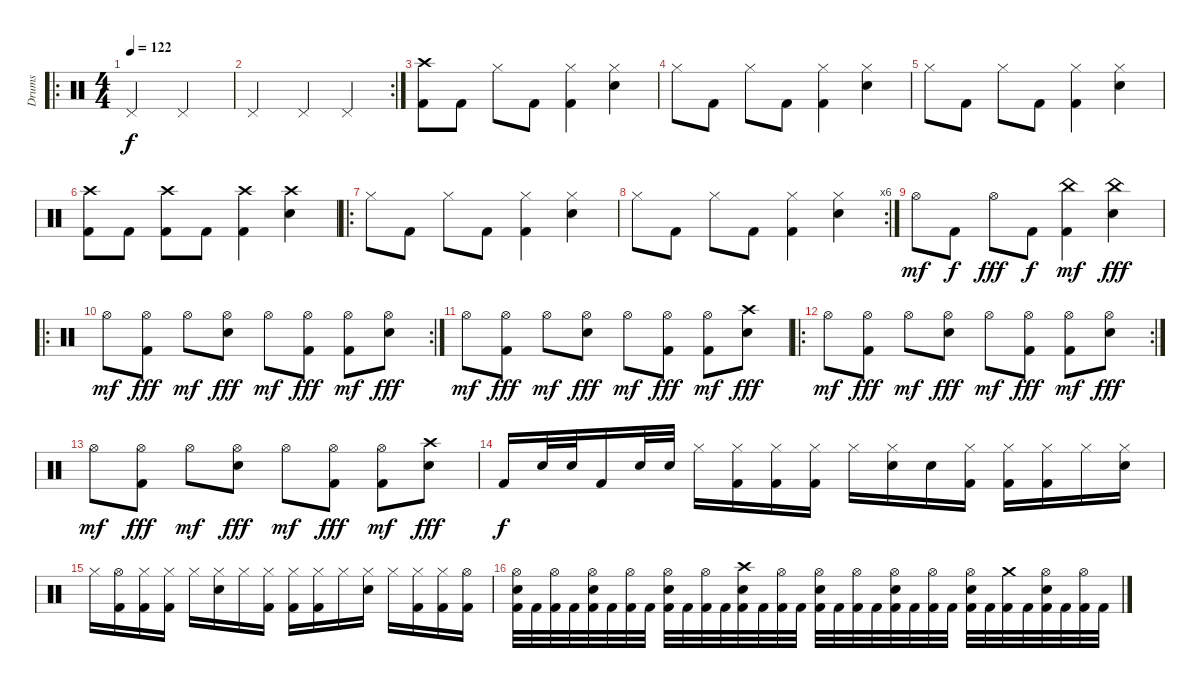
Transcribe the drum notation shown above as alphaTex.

\track ("Drums" "Drums") {instrument percussion}
\staff {score}
\articulation defaults
\ro
\ts (4 4)
\tempo 122
\clef neutral
\ks c "Pedal Hi-Hat (hit)".2{dy f} "Pedal Hi-Hat (hit)".2
|
\rc 2 "Pedal Hi-Hat (hit)".2 "Pedal Hi-Hat (hit)".4 "Pedal Hi-Hat (hit)".4
|
("Crash high (hit)" "Kick (hit) 2").8 "Kick (hit) 2".8 "Hi-Hat (closed)".8 "Kick (hit) 2".8 ("Hi-Hat (closed)" "Kick (hit) 2").4 ("Hi-Hat (closed)" "Snare (hit) 2").4 |
"Hi-Hat (closed)".8 "Kick (hit) 2".8 "Hi-Hat (closed)".8 "Kick (hit) 2".8 ("Hi-Hat (closed)" "Kick (hit) 2").4 ("Hi-Hat (closed)" "Snare (hit) 2").4 |
"Hi-Hat (closed)".8 "Kick (hit) 2".8 "Hi-Hat (closed)".8 "Kick (hit) 2".8 ("Hi-Hat (closed)" "Kick (hit) 2").4 ("Hi-Hat (closed)" "Snare (hit) 2").4 |
("Crash high (hit)" "Kick (hit) 2").8 "Kick (hit) 2".8 ("Crash high (hit)" "Kick (hit) 2").8 "Kick (hit) 2".8 ("Crash high (hit)" "Kick (hit) 2").4 ("Crash high (hit)" "Snare (hit) 2").4 |
\ro "Hi-Hat (closed)".8 "Kick (hit) 2".8 "Hi-Hat (closed)".8 "Kick (hit) 2".8
("Hi-Hat (closed)" "Kick (hit) 2").4 ("Hi-Hat (closed)" "Snare (hit) 2").4 |
\rc 6 "Hi-Hat (closed)".8 "Kick (hit) 2".8 "Hi-Hat (closed)".8 "Kick (hit) 2".8
("Hi-Hat (closed)" "Kick (hit) 2").4 ("Hi-Hat (closed)" "Snare (hit) 2").4 |
"Hi-Hat (open)".8{dy mf} "Kick (hit) 2".8{dy f} "Hi-Hat (open)".8{dy fff} "Kick (hit) 2".8{dy f} ("China (hit)" "Kick (hit) 2").4{dy mf} ("China (hit)" "Snare (hit) 2").4{dy fff} |
\ro
\rc 2 "Hi-Hat (open)".8{dy mf}
("Hi-Hat (open)" "Kick (hit) 2").8{dy fff} "Hi-Hat (open)".8{dy mf} ("Hi-Hat (open)" "Snare (hit) 2").8{dy fff} "Hi-Hat (open)".8{dy mf} ("Hi-Hat (open)" "Kick (hit) 2").8{dy fff} ("Hi-Hat (open)" "Kick (hit) 2").8{dy mf} ("Hi-Hat (open)" "Snare (hit) 2").8{dy fff} |
"Hi-Hat (open)".8{dy mf} ("Hi-Hat (open)" "Kick (hit) 2").8{dy fff} "Hi-Hat (open)".8{dy mf} ("Hi-Hat (open)" "Snare (hit) 2").8{dy fff} "Hi-Hat (open)".8{dy mf} ("Hi-Hat (open)" "Kick (hit) 2").8{dy fff} ("Hi-Hat (open)" "Kick (hit) 2").8{dy mf} ("Crash high (hit)" "Snare (hit) 2").8{dy fff} |
\ro
\rc 2 "Hi-Hat (open)".8{dy mf}
("Hi-Hat (open)" "Kick (hit) 2").8{dy fff} "Hi-Hat (open)".8{dy mf} ("Hi-Hat (open)" "Snare (hit) 2").8{dy fff} "Hi-Hat (open)".8{dy mf} ("Hi-Hat (open)" "Kick (hit) 2").8{dy fff} ("Hi-Hat (open)" "Kick (hit) 2").8{dy mf} ("Hi-Hat (open)" "Snare (hit) 2").8{dy fff} |
"Hi-Hat (open)".8{dy mf} ("Hi-Hat (open)" "Kick (hit) 2").8{dy fff} "Hi-Hat (open)".8{dy mf} ("Hi-Hat (open)" "Snare (hit) 2").8{dy fff} "Hi-Hat (open)".8{dy mf} ("Hi-Hat (open)" "Kick (hit) 2").8{dy fff} ("Hi-Hat (open)" "Kick (hit) 2").8{dy mf} ("Crash high (hit)" "Snare (hit) 2").8{dy fff} |
"Kick (hit) 2".16{dy f} "Snare (hit) 2".32 "Snare (hit) 2".32 "Kick (hit) 2".16 "Snare (hit) 2".32 "Snare (hit) 2".32 "Hi-Hat (closed)".16 ("Hi-Hat (closed)" "Kick (hit) 2").16 ("Hi-Hat (closed)" "Kick (hit) 2").16 ("Hi-Hat (closed)" "Kick (hit) 2").16 "Hi-Hat (closed)".16 ("Hi-Hat (closed)" "Snare (hit) 2").16 "Snare (hit)".16 ("Hi-Hat (closed)" "Kick (hit) 2").16 ("Hi-Hat (closed)" "Kick (hit) 2").16 ("Hi-Hat (closed)" "Kick (hit) 2").16 "Hi-Hat (closed)".16 ("Hi-Hat (closed)" "Snare (hit) 2").16 |
"Hi-Hat (closed)".16 ("Hi-Hat (open)" "Kick (hit) 2").16 ("Hi-Hat (closed)" "Kick (hit) 2").16 ("Hi-Hat (closed)" "Kick (hit) 2").16 "Hi-Hat (closed)".16 ("Hi-Hat (closed)" "Snare (hit) 2").16 "Hi-Hat (closed)".16 ("Hi-Hat (closed)" "Kick (hit) 2").16 ("Hi-Hat (closed)" "Kick (hit) 2").16 ("Hi-Hat (closed)" "Kick (hit) 2").16 "Hi-Hat (closed)".16 ("Hi-Hat (closed)" "Snare (hit) 2").16 "Hi-Hat (closed)".16 ("Hi-Hat (closed)" "Kick (hit) 2").16 ("Hi-Hat (closed)" "Kick (hit) 2").16 ("Hi-Hat (open)" "Kick (hit) 2").16 |
("Hi-Hat (open)" "Kick (hit) 2" "Snare (hit) 2").32 "Kick (hit) 2".32 ("Hi-Hat (open)" "Kick (hit) 2").32 "Kick (hit) 2".32 ("Hi-Hat (open)" "Kick (hit) 2" "Snare (hit) 2").32 "Kick (hit) 2".32 ("Hi-Hat (open)" "Kick (hit) 2").32 "Kick (hit) 2".32 ("Hi-Hat (open)" "Kick (hit) 2" "Snare (hit) 2").32 "Kick (hit) 2".32 ("Hi-Hat (open)" "Kick (hit) 2").32 "Kick (hit) 2".32 ("Crash high (hit)" "Kick (hit) 2" "Snare (hit) 2").32 "Kick (hit) 2".32 ("Hi-Hat (open)" "Kick (hit) 2").32 "Kick (hit) 2".32 ("Hi-Hat (open)" "Kick (hit) 2" "Snare (hit) 2").32 "Kick (hit) 2".32 ("Hi-Hat (open)" "Kick (hit) 2").32 "Kick (hit) 2".32 ("Hi-Hat (open)" "Kick (hit) 2" "Snare (hit) 2").32 "Kick (hit) 2".32 ("Hi-Hat (open)" "Kick (hit) 2").32 "Kick (hit) 2".32 ("Hi-Hat (open)" "Kick (hit) 2" "Snare (hit) 2").32 "Kick (hit) 2".32 ("Crash medium (hit)" "Kick (hit) 2").32 "Kick (hit) 2".32 ("Hi-Hat (open)" "Kick (hit) 2" "Snare (hit) 2").32 "Kick (hit) 2".32 ("Hi-Hat (open)" "Kick (hit) 2").32 "Kick (hit) 2".32
